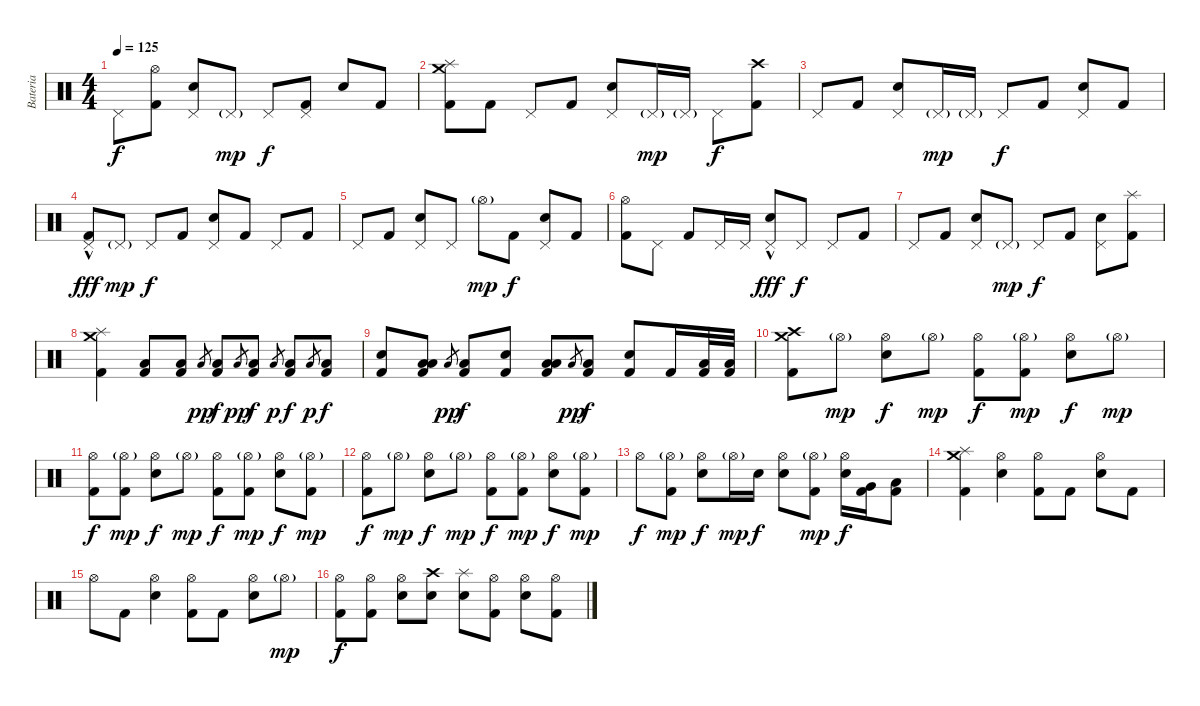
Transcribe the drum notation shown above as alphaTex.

\track ("Bateria" "Bateria") {instrument percussion}
\staff {score}
\articulation defaults
\ts (4 4)
\tempo 125
\clef neutral
\ks c "Pedal Hi-Hat (hit)".8{dy f}
("Hi-Hat (open)" "Kick (hit) 2").8 ("Pedal Hi-Hat (hit)" "Electric Snare (hit)").8 "Pedal Hi-Hat (hit)"{g}.8{dy mp} "Pedal Hi-Hat (hit)".8{dy f} ("Pedal Hi-Hat (hit)" "Kick (hit) 2").8 "Electric Snare (hit)".8 "Kick (hit) 2".8 |
("Crash medium (hit)" "Splash (hit)" "Kick (hit) 2").8 "Kick (hit) 2".8 "Pedal Hi-Hat (hit)".8 "Kick (hit) 2".8 ("Pedal Hi-Hat (hit)" "Electric Snare (hit)").8 "Pedal Hi-Hat (hit)"{g}.16{dy mp} "Pedal Hi-Hat (hit)"{g}.16 "Pedal Hi-Hat (hit)".8{dy f} ("Crash high (hit)" "Kick (hit) 2").8 |
"Pedal Hi-Hat (hit)".8 "Kick (hit) 2".8 ("Pedal Hi-Hat (hit)" "Electric Snare (hit)").8 "Pedal Hi-Hat (hit)"{g}.16{dy mp} "Pedal Hi-Hat (hit)"{g}.16 "Pedal Hi-Hat (hit)".8{dy f} "Kick (hit) 2".8 ("Pedal Hi-Hat (hit)" "Electric Snare (hit)").8 "Kick (hit) 2".8 |
("Pedal Hi-Hat (hit)"{hac} "Kick (hit) 2").8{dy fff} "Pedal Hi-Hat (hit)"{g}.8{dy mp} "Pedal Hi-Hat (hit)".8{dy f} "Kick (hit) 2".8 ("Pedal Hi-Hat (hit)" "Electric Snare (hit)").8 "Kick (hit) 2".8 "Pedal Hi-Hat (hit)".8 "Kick (hit) 2".8 |
"Pedal Hi-Hat (hit)".8 "Kick (hit) 2".8 ("Pedal Hi-Hat (hit)" "Electric Snare (hit)").8 "Pedal Hi-Hat (hit)".8 "Hi-Hat (open)"{g}.8{dy mp} "Kick (hit) 2".8{dy f} ("Pedal Hi-Hat (hit)" "Electric Snare (hit)").8 "Kick (hit) 2".8 |
("Hi-Hat (open)" "Kick (hit) 2").8 "Pedal Hi-Hat (hit)".8 "Kick (hit) 2".8 "Pedal Hi-Hat (hit)".16 "Pedal Hi-Hat (hit)".16 ("Pedal Hi-Hat (hit)"{hac} "Electric Snare (hit)").8{dy fff} "Pedal Hi-Hat (hit)".8{dy f} "Pedal Hi-Hat (hit)".8 "Kick (hit) 2".8 |
"Pedal Hi-Hat (hit)".8 "Kick (hit) 2".8 ("Pedal Hi-Hat (hit)" "Electric Snare (hit)").8 "Pedal Hi-Hat (hit)"{g}.8{dy mp} "Pedal Hi-Hat (hit)".8{dy f} "Kick (hit) 2".8 ("Pedal Hi-Hat (hit)" "Electric Snare (hit)").8 ("Splash (hit)" "Kick (hit) 2").8 |
("Crash medium (hit)" "Splash (hit)" "Kick (hit) 2").4 ("Low Floor Tom (hit)" "Kick (hit) 2").8 ("Low Floor Tom (hit)" "Kick (hit) 2").8 "Low Floor Tom (hit)".8{gr dy pp} ("Low Floor Tom (hit)" "Kick (hit) 2").8{dy f} "Low Floor Tom (hit)".8{gr dy pp} ("Low Floor Tom (hit)" "Kick (hit) 2").8{dy f} "Low Floor Tom (hit)".8{gr dy p} ("Low Floor Tom (hit)" "Kick (hit) 2").8{dy f} "Low Floor Tom (hit)".8{gr dy p} ("Low Floor Tom (hit)" "Kick (hit) 2").8{dy f} |
("Electric Snare (hit)" "Kick (hit) 2").8 ("Low Floor Tom (hit)" "Low Floor Tom (hit)" "Kick (hit) 2").8 "Low Floor Tom (hit)".8{gr dy pp} ("Low Floor Tom (hit)" "Kick (hit) 2").8{dy f} ("Electric Snare (hit)" "Kick (hit) 2").8 ("Low Floor Tom (hit)" "Low Floor Tom (hit)" "Kick (hit) 2").8 "Low Floor Tom (hit)".8{gr dy pp} ("Low Floor Tom (hit)" "Kick (hit) 2").8{dy f} ("Electric Snare (hit)" "Kick (hit) 2").8 "Kick (hit) 2".16 ("Low Floor Tom (hit)" "Kick (hit) 2").32 ("Low Tom (hit)" "Kick (hit) 2").32 |
("Crash medium (hit)" "Crash high (hit)" "Kick (hit) 2").8 "Hi-Hat (open)"{g}.8{dy mp} ("Hi-Hat (open)" "Electric Snare (hit)").8{dy f} "Hi-Hat (open)"{g}.8{dy mp} ("Hi-Hat (open)" "Kick (hit) 2").8{dy f} ("Hi-Hat (open)"{g} "Kick (hit) 2").8{dy mp} ("Hi-Hat (open)" "Electric Snare (hit)").8{dy f} "Hi-Hat (open)"{g}.8{dy mp} |
("Hi-Hat (open)" "Kick (hit) 2").8{dy f} ("Hi-Hat (open)"{g} "Kick (hit) 2").8{dy mp} ("Hi-Hat (open)" "Electric Snare (hit)").8{dy f} "Hi-Hat (open)"{g}.8{dy mp} ("Hi-Hat (open)" "Kick (hit) 2").8{dy f} ("Hi-Hat (open)"{g} "Kick (hit) 2").8{dy mp} ("Hi-Hat (open)" "Electric Snare (hit)").8{dy f} ("Hi-Hat (open)"{g} "Kick (hit) 2").8{dy mp} |
("Hi-Hat (open)" "Kick (hit) 2").8{dy f} "Hi-Hat (open)"{g}.8{dy mp} ("Hi-Hat (open)" "Electric Snare (hit)").8{dy f} "Hi-Hat (open)"{g}.8{dy mp} ("Hi-Hat (open)" "Kick (hit) 2").8{dy f} ("Hi-Hat (open)"{g} "Kick (hit) 2").8{dy mp} ("Hi-Hat (open)" "Electric Snare (hit)").8{dy f} ("Hi-Hat (open)"{g} "Kick (hit) 2").8{dy mp} |
"Hi-Hat (open)".8{dy f} ("Hi-Hat (open)"{g} "Kick (hit) 2").8{dy mp} ("Hi-Hat (open)" "Electric Snare (hit)").8{dy f} "Hi-Hat (open)"{g}.16{dy mp} "Electric Snare (hit)".16{dy f} ("Hi-Hat (open)" "Electric Snare (hit)").8 ("Hi-Hat (open)"{g} "Kick (hit) 2").8{dy mp} ("Hi-Hat (open)" "Electric Snare (hit)").16{dy f} ("Very Low Tom (hit)" "Kick (hit) 2").16 ("Low Floor Tom (hit)" "Kick (hit) 2").8 |
("Crash medium (hit)" "Splash (hit)" "Kick (hit) 2").4 ("Hi-Hat (open)" "Electric Snare (hit)").4 ("Hi-Hat (open)" "Kick (hit) 2").8 "Kick (hit) 2".8 ("Hi-Hat (open)" "Electric Snare (hit)").8 "Kick (hit) 2".8 |
"Hi-Hat (open)".8 "Kick (hit) 2".8 ("Hi-Hat (open)" "Electric Snare (hit)").4 ("Hi-Hat (open)" "Kick (hit) 2").8 "Kick (hit) 2".8 ("Hi-Hat (open)" "Electric Snare (hit)").8 "Hi-Hat (open)"{g}.8{dy mp} |
("Hi-Hat (open)" "Kick (hit) 2").8{dy f} ("Hi-Hat (open)" "Kick (hit) 2").8 ("Hi-Hat (open)" "Electric Snare (hit)").8 ("Crash high (hit)" "Electric Snare (hit)").8 ("Splash (hit)" "Electric Snare (hit)").8 ("Hi-Hat (open)" "Kick (hit) 2").8 ("Hi-Hat (open)" "Electric Snare (hit)").8 ("Hi-Hat (open)" "Kick (hit) 2").8
